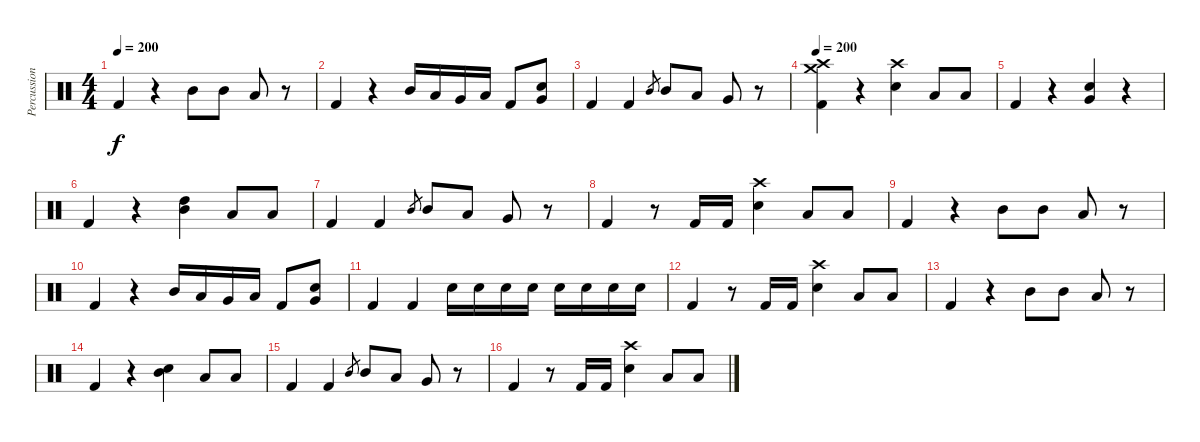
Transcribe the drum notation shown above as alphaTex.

\track ("Percussion" "Percussion") {instrument percussion}
\staff {score}
\articulation defaults
\ts (4 4)
\tempo 200
\clef neutral
\ks c "Kick (hit) 2".4{dy f}
r.4 "Mid Tom (hit)".8 "Mid Tom (hit)".8 "Low Tom (hit)".8 r.8 |
"Kick (hit) 2".4 r.4 "Mid Tom (hit)".16 "Low Tom (hit)".16 "Very Low Tom (hit)".16 "Low Floor Tom (hit)".16 "Kick (hit) 2".8 ("Snare (hit) 2" "Very Low Tom (hit)").8 |
"Kick (hit) 2".4 "Kick (hit) 2".4 "Mid Tom (hit)".8{gr} "Mid Tom (hit)".8 "Low Tom (hit)".8 "Very Low Tom (hit)".8 r.8 |
\tempo 200
("Crash high (hit)" "Crash medium (hit)" "Kick (hit) 2").4 r.4 ("Crash high (hit)" "Snare (hit) 2").4 "Low Tom (hit)".8 "Low Tom (hit)".8 |
"Kick (hit) 2".4 r.4 ("Very Low Tom (hit)" "Snare (hit) 2").4 r.4 |
"Kick (hit) 2".4 r.4 ("High Tom (hit)" "Mid Tom (hit)").4 "Low Tom (hit)".8 "Low Tom (hit)".8 |
"Kick (hit) 2".4 "Kick (hit) 2".4 "Mid Tom (hit)".8{gr} "Mid Tom (hit)".8 "Low Tom (hit)".8 "Very Low Tom (hit)".8 r.8 |
"Kick (hit) 2".4 r.8 "Kick (hit) 2".16 "Kick (hit) 2".16 ("Crash high (hit)" "Snare (hit) 2").4 "Low Tom (hit)".8 "Low Tom (hit)".8 |
"Kick (hit) 2".4 r.4 "Mid Tom (hit)".8 "Mid Tom (hit)".8 "Low Tom (hit)".8 r.8 |
"Kick (hit) 2".4 r.4 "Mid Tom (hit)".16 "Low Tom (hit)".16 "Very Low Tom (hit)".16 "Low Floor Tom (hit)".16 "Kick (hit) 2".8 ("Snare (hit) 2" "Very Low Tom (hit)").8 |
"Kick (hit) 2".4 "Kick (hit) 2".4 "Snare (hit) 2".16 "Snare (hit) 2".16 "Snare (hit) 2".16 "Snare (hit) 2".16 "Snare (hit) 2".16 "Snare (hit) 2".16 "Snare (hit) 2".16 "Snare (hit) 2".16 |
"Kick (hit) 2".4 r.8 "Kick (hit) 2".16 "Kick (hit) 2".16 ("Crash high (hit)" "Snare (hit) 2").4 "Low Tom (hit)".8 "Low Tom (hit)".8 |
"Kick (hit) 2".4 r.4 "Mid Tom (hit)".8 "Mid Tom (hit)".8 "Low Tom (hit)".8 r.8 |
"Kick (hit) 2".4 r.4 ("Mid Tom (hit)" "Snare (hit) 2").4 "Low Tom (hit)".8 "Low Tom (hit)".8 |
"Kick (hit) 2".4 "Kick (hit) 2".4 "Mid Tom (hit)".8{gr} "Mid Tom (hit)".8 "Low Tom (hit)".8 "Very Low Tom (hit)".8 r.8 |
"Kick (hit) 2".4 r.8 "Kick (hit) 2".16 "Kick (hit) 2".16 ("Crash high (hit)" "Snare (hit) 2").4 "Low Tom (hit)".8 "Low Tom (hit)".8
